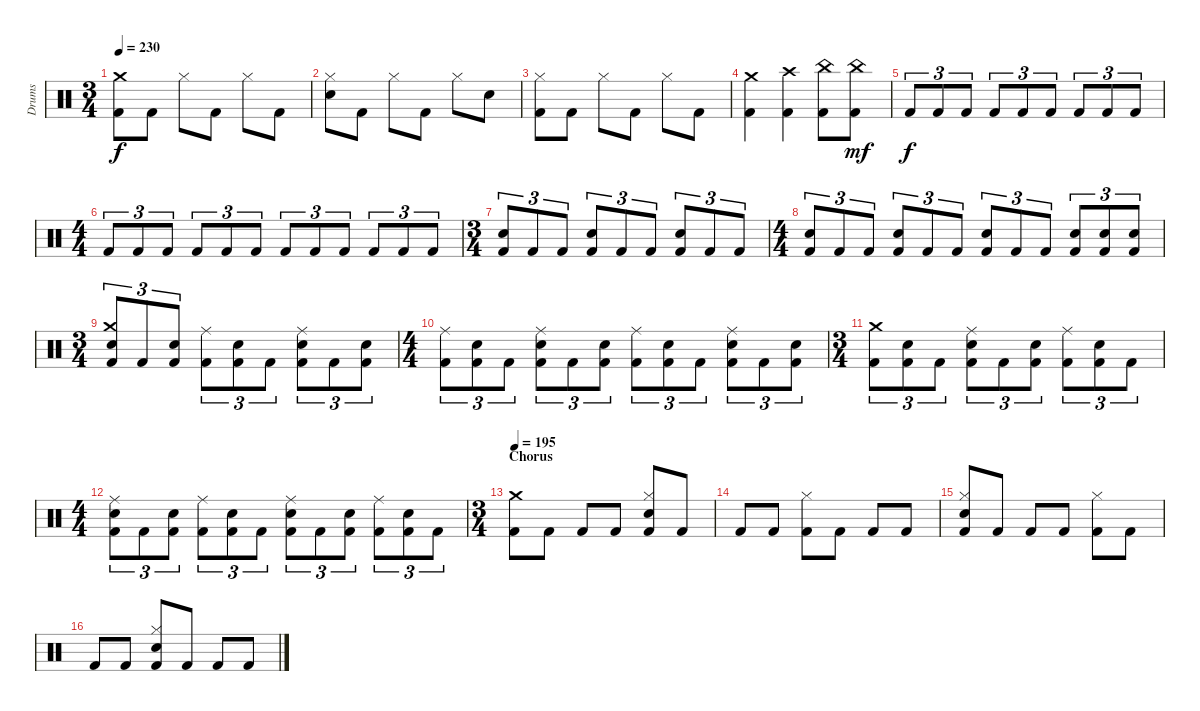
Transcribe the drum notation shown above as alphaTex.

\track ("Drums" "Drums") {instrument percussion}
\staff {score}
\articulation defaults
\ts (3 4)
\tempo 230
\clef neutral
\ks c
("Kick (hit) 2" "Crash medium (hit)").8{dy f} "Kick (hit) 2".8 "Hi-Hat (closed)".8 "Kick (hit) 2".8 "Hi-Hat (closed)".8 "Kick (hit) 2".8 |
("Snare (hit) 2" "Hi-Hat (closed)").8 "Kick (hit) 2".8 "Hi-Hat (closed)".8 "Kick (hit) 2".8 "Hi-Hat (closed)".8 "Snare (hit) 2".8 |
("Kick (hit) 2" "Hi-Hat (closed)").8 "Kick (hit) 2".8 "Hi-Hat (closed)".8 "Kick (hit) 2".8 "Hi-Hat (closed)".8 "Kick (hit) 2".8 |
("Kick (hit) 2" "Crash medium (hit)").4 ("Kick (hit) 2" "Crash high (hit)").4 ("Kick (hit) 2" "China (hit)").8 ("Kick (hit) 2" "China (hit)").8{dy mf} |
"Kick (hit) 2".8{tu (3 2) dy f} "Kick (hit) 2".8{tu (3 2)} "Kick (hit) 2".8{tu (3 2)} "Kick (hit) 2".8{tu (3 2)} "Kick (hit) 2".8{tu (3 2)} "Kick (hit) 2".8{tu (3 2)} "Kick (hit) 2".8{tu (3 2)} "Kick (hit) 2".8{tu (3 2)} "Kick (hit) 2".8{tu (3 2)} |
\ts (4 4)
"Kick (hit) 2".8{tu (3 2)} "Kick (hit) 2".8{tu (3 2)} "Kick (hit) 2".8{tu (3 2)} "Kick (hit) 2".8{tu (3 2)} "Kick (hit) 2".8{tu (3 2)} "Kick (hit) 2".8{tu (3 2)} "Kick (hit) 2".8{tu (3 2)} "Kick (hit) 2".8{tu (3 2)} "Kick (hit) 2".8{tu (3 2)} "Kick (hit) 2".8{tu (3 2)} "Kick (hit) 2".8{tu (3 2)} "Kick (hit) 2".8{tu (3 2)} |
\ts (3 4)
("Kick (hit) 2" "Snare (hit) 2").8{tu (3 2)} "Kick (hit) 2".8{tu (3 2)} "Kick (hit) 2".8{tu (3 2)} ("Kick (hit) 2" "Snare (hit) 2").8{tu (3 2)} "Kick (hit) 2".8{tu (3 2)} "Kick (hit) 2".8{tu (3 2)} ("Kick (hit) 2" "Snare (hit) 2").8{tu (3 2)} "Kick (hit) 2".8{tu (3 2)} "Kick (hit) 2".8{tu (3 2)} |
\ts (4 4)
("Kick (hit) 2" "Snare (hit) 2").8{tu (3 2)} "Kick (hit) 2".8{tu (3 2)} "Kick (hit) 2".8{tu (3 2)} ("Kick (hit) 2" "Snare (hit) 2").8{tu (3 2)} "Kick (hit) 2".8{tu (3 2)} "Kick (hit) 2".8{tu (3 2)} ("Kick (hit) 2" "Snare (hit) 2").8{tu (3 2)} "Kick (hit) 2".8{tu (3 2)} "Kick (hit) 2".8{tu (3 2)} ("Kick (hit) 2" "Snare (hit) 2").8{tu (3 2)} ("Kick (hit) 2" "Snare (hit) 2").8{tu (3 2)} ("Kick (hit) 2" "Snare (hit) 2").8{tu (3 2)} |
\ts (3 4)
("Kick (hit) 2" "Snare (hit) 2" "Crash medium (hit)").8{tu (3 2)} "Kick (hit) 2".8{tu (3 2)} ("Kick (hit) 2" "Snare (hit) 2").8{tu (3 2)} ("Kick (hit) 2" "Ride (middle)").8{tu (3 2)} ("Kick (hit) 2" "Snare (hit) 2").8{tu (3 2)} "Kick (hit) 2".8{tu (3 2)} ("Kick (hit) 2" "Snare (hit) 2" "Ride (middle)").8{tu (3 2)} "Kick (hit) 2".8{tu (3 2)} ("Kick (hit) 2" "Snare (hit) 2").8{tu (3 2)} |
\ts (4 4)
("Kick (hit) 2" "Ride (middle)").8{tu (3 2)} ("Kick (hit) 2" "Snare (hit) 2").8{tu (3 2)} "Kick (hit) 2".8{tu (3 2)} ("Kick (hit) 2" "Snare (hit) 2" "Ride (middle)").8{tu (3 2)} "Kick (hit) 2".8{tu (3 2)} ("Kick (hit) 2" "Snare (hit) 2").8{tu (3 2)} ("Kick (hit) 2" "Ride (middle)").8{tu (3 2)} ("Kick (hit) 2" "Snare (hit) 2").8{tu (3 2)} "Kick (hit) 2".8{tu (3 2)} ("Kick (hit) 2" "Snare (hit) 2" "Ride (middle)").8{tu (3 2)} "Kick (hit) 2".8{tu (3 2)} ("Kick (hit) 2" "Snare (hit) 2").8{tu (3 2)} |
\ts (3 4)
("Kick (hit) 2" "Crash medium (hit)").8{tu (3 2)} ("Kick (hit) 2" "Snare (hit) 2").8{tu (3 2)} "Kick (hit) 2".8{tu (3 2)} ("Kick (hit) 2" "Snare (hit) 2" "Ride (middle)").8{tu (3 2)} "Kick (hit) 2".8{tu (3 2)} ("Kick (hit) 2" "Snare (hit) 2").8{tu (3 2)} ("Kick (hit) 2" "Ride (middle)").8{tu (3 2)} ("Kick (hit) 2" "Snare (hit) 2").8{tu (3 2)} "Kick (hit) 2".8{tu (3 2)} |
\ts (4 4)
("Kick (hit) 2" "Snare (hit) 2" "Ride (middle)").8{tu (3 2)} "Kick (hit) 2".8{tu (3 2)} ("Kick (hit) 2" "Snare (hit) 2").8{tu (3 2)} ("Kick (hit) 2" "Ride (middle)").8{tu (3 2)} ("Kick (hit) 2" "Snare (hit) 2").8{tu (3 2)} "Kick (hit) 2".8{tu (3 2)} ("Kick (hit) 2" "Snare (hit) 2" "Ride (middle)").8{tu (3 2)} "Kick (hit) 2".8{tu (3 2)} ("Kick (hit) 2" "Snare (hit) 2").8{tu (3 2)} ("Kick (hit) 2" "Ride (middle)").8{tu (3 2)} ("Kick (hit) 2" "Snare (hit) 2").8{tu (3 2)} "Kick (hit) 2".8{tu (3 2)} |
\ts (3 4)
\section ("" "Chorus")
\tempo 195
("Kick (hit) 2" "Crash medium (hit)").8 "Kick (hit) 2".8 "Kick (hit) 2".8 "Kick (hit) 2".8 ("Kick (hit) 2" "Snare (hit) 2" "Hi-Hat (closed)").8 "Kick (hit) 2".8 |
"Kick (hit) 2".8 "Kick (hit) 2".8 ("Kick (hit) 2" "Hi-Hat (closed)").8 "Kick (hit) 2".8 "Kick (hit) 2".8 "Kick (hit) 2".8 |
("Kick (hit) 2" "Snare (hit) 2" "Hi-Hat (closed)").8 "Kick (hit) 2".8 "Kick (hit) 2".8 "Kick (hit) 2".8 ("Kick (hit) 2" "Hi-Hat (closed)").8 "Kick (hit) 2".8 |
"Kick (hit) 2".8 "Kick (hit) 2".8 ("Kick (hit) 2" "Snare (hit) 2" "Hi-Hat (closed)").8 "Kick (hit) 2".8 "Kick (hit) 2".8 "Kick (hit) 2".8
